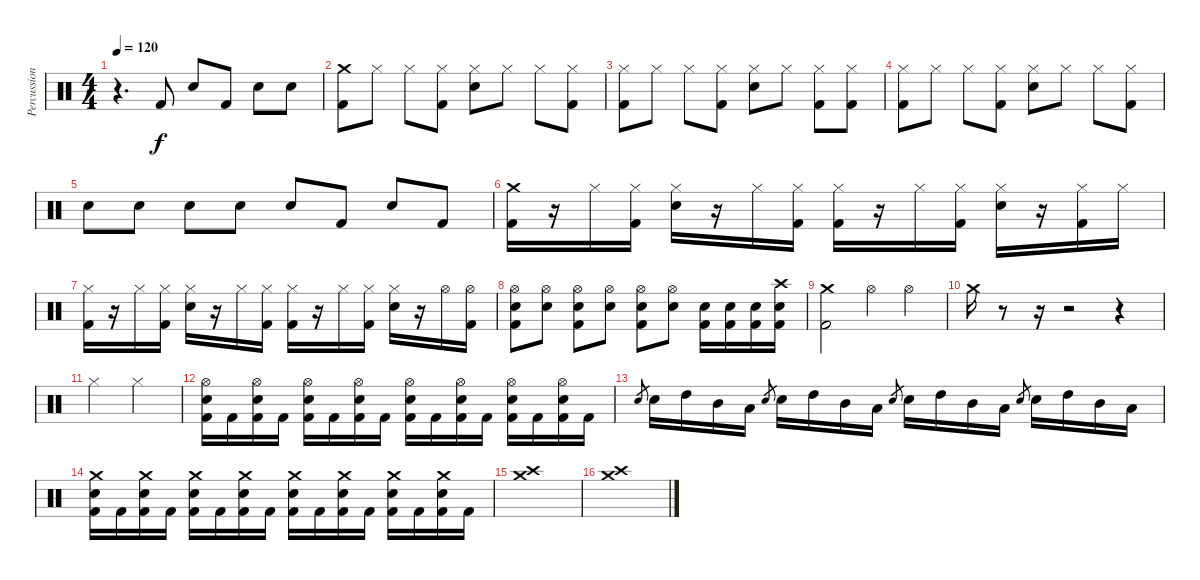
\track ("Percussions" "Percussion") {instrument percussion}
\staff {score}
\articulation defaults
\ts (4 4)
\tempo 120
\clef neutral
\ks c
r.4{d dy f} "Kick (hit) 2".8 "Electric Snare (hit)".8 "Kick (hit) 2".8 "Electric Snare (hit)".8 "Electric Snare (hit)".8 |
("Crash medium (hit)" "Kick (hit) 2").8 "Hi-Hat (closed)".8 "Hi-Hat (closed)".8 ("Hi-Hat (closed)" "Kick (hit) 2").8 ("Hi-Hat (closed)" "Electric Snare (hit)").8 "Hi-Hat (closed)".8 "Hi-Hat (closed)".8 ("Hi-Hat (closed)" "Kick (hit) 2").8 |
("Hi-Hat (closed)" "Kick (hit) 2").8 "Hi-Hat (closed)".8 "Hi-Hat (closed)".8 ("Hi-Hat (closed)" "Kick (hit) 2").8 ("Hi-Hat (closed)" "Electric Snare (hit)").8 "Hi-Hat (closed)".8 ("Hi-Hat (closed)" "Kick (hit) 2").8 ("Hi-Hat (closed)" "Kick (hit) 2").8 |
("Hi-Hat (closed)" "Kick (hit) 2").8 "Hi-Hat (closed)".8 "Hi-Hat (closed)".8 ("Hi-Hat (closed)" "Kick (hit) 2").8 ("Hi-Hat (closed)" "Electric Snare (hit)").8 "Hi-Hat (closed)".8 "Hi-Hat (closed)".8 ("Hi-Hat (closed)" "Kick (hit) 2").8 |
"Electric Snare (hit)".8 "Electric Snare (hit)".8 "Electric Snare (hit)".8 "Electric Snare (hit)".8 "Electric Snare (hit)".8 "Kick (hit) 2".8 "Electric Snare (hit)".8 "Kick (hit) 2".8 |
("Crash medium (hit)" "Kick (hit) 2").16 r.16 "Hi-Hat (closed)".16 ("Hi-Hat (closed)" "Kick (hit) 2").16 ("Hi-Hat (closed)" "Electric Snare (hit)").16 r.16 "Hi-Hat (closed)".16 ("Hi-Hat (closed)" "Kick (hit) 2").16 ("Hi-Hat (closed)" "Kick (hit) 2").16 r.16 "Hi-Hat (closed)".16 ("Hi-Hat (closed)" "Kick (hit) 2").16 ("Hi-Hat (closed)" "Electric Snare (hit)").16 r.16 ("Hi-Hat (closed)" "Kick (hit) 2").16 "Hi-Hat (closed)".16 |
("Hi-Hat (closed)" "Kick (hit) 2").16 r.16 "Hi-Hat (closed)".16 ("Hi-Hat (closed)" "Kick (hit) 2").16 ("Hi-Hat (closed)" "Electric Snare (hit)").16 r.16 "Hi-Hat (closed)".16 ("Hi-Hat (closed)" "Kick (hit) 2").16 ("Hi-Hat (closed)" "Kick (hit) 2").16 r.16 "Hi-Hat (closed)".16 ("Hi-Hat (closed)" "Kick (hit) 2").16 ("Hi-Hat (closed)" "Electric Snare (hit)").16 r.16 "Hi-Hat (open)".16 ("Hi-Hat (open)" "Kick (hit) 2").16 |
("Hi-Hat (open)" "Electric Snare (hit)" "Kick (hit) 2").8 ("Hi-Hat (open)" "Electric Snare (hit)").8 ("Hi-Hat (open)" "Electric Snare (hit)" "Kick (hit) 2").8 ("Hi-Hat (open)" "Electric Snare (hit)").8 ("Hi-Hat (open)" "Electric Snare (hit)" "Kick (hit) 2").8 ("Hi-Hat (open)" "Electric Snare (hit)").8 ("Electric Snare (hit)" "Kick (hit) 2").16 ("Electric Snare (hit)" "Kick (hit) 2").16 ("Electric Snare (hit)" "Kick (hit) 2").16 ("Crash high (hit)" "Electric Snare (hit)" "Kick (hit) 2").16 |
("Crash medium (hit)" "Kick (hit) 2").2 "Hi-Hat (open)".4 "Hi-Hat (open)".4 |
"Crash medium (hit)".16 r.8 r.16 r.2 r.4 |
"Hi-Hat (closed)".2 "Hi-Hat (closed)".2 |
("Hi-Hat (open)" "Electric Snare (hit)" "Kick (hit) 2").16 "Kick (hit) 2".16 ("Hi-Hat (open)" "Electric Snare (hit)" "Kick (hit) 2").16 "Kick (hit) 2".16 ("Hi-Hat (open)" "Electric Snare (hit)" "Kick (hit) 2").16 "Kick (hit) 2".16 ("Hi-Hat (open)" "Electric Snare (hit)" "Kick (hit) 2").16 "Kick (hit) 2".16 ("Hi-Hat (open)" "Electric Snare (hit)" "Kick (hit) 2").16 "Kick (hit) 2".16 ("Hi-Hat (open)" "Electric Snare (hit)" "Kick (hit) 2").16 "Kick (hit) 2".16 ("Hi-Hat (open)" "Electric Snare (hit)" "Kick (hit) 2").16 "Kick (hit) 2".16 ("Hi-Hat (open)" "Electric Snare (hit)" "Kick (hit) 2").16 "Kick (hit) 2".16 |
"Electric Snare (hit)".8{gr} "Electric Snare (hit)".16 "High Tom (hit)".16 "Mid Tom (hit)".16 "Low Tom (hit)".16 "Electric Snare (hit)".8{gr} "Electric Snare (hit)".16 "High Tom (hit)".16 "Mid Tom (hit)".16 "Low Tom (hit)".16 "Electric Snare (hit)".8{gr} "Electric Snare (hit)".16 "High Tom (hit)".16 "Mid Tom (hit)".16 "Low Tom (hit)".16 "Electric Snare (hit)".8{gr} "Electric Snare (hit)".16 "High Tom (hit)".16 "Mid Tom (hit)".16 "Low Tom (hit)".16 |
("Crash medium (hit)" "Electric Snare (hit)" "Kick (hit) 2").16 "Kick (hit) 2".16 ("Crash medium (hit)" "Electric Snare (hit)" "Kick (hit) 2").16 "Kick (hit) 2".16 ("Crash medium (hit)" "Electric Snare (hit)" "Kick (hit) 2").16 "Kick (hit) 2".16 ("Crash medium (hit)" "Electric Snare (hit)" "Kick (hit) 2").16 "Kick (hit) 2".16 ("Crash medium (hit)" "Electric Snare (hit)" "Kick (hit) 2").16 "Kick (hit) 2".16 ("Crash medium (hit)" "Electric Snare (hit)" "Kick (hit) 2").16 "Kick (hit) 2".16 ("Crash medium (hit)" "Electric Snare (hit)" "Kick (hit) 2").16 "Kick (hit) 2".16 ("Crash medium (hit)" "Electric Snare (hit)" "Kick (hit) 2").16 "Kick (hit) 2".16 |
("Crash medium (hit)" "Crash high (hit)").1 |
("Crash medium (hit)" "Crash high (hit)").1
